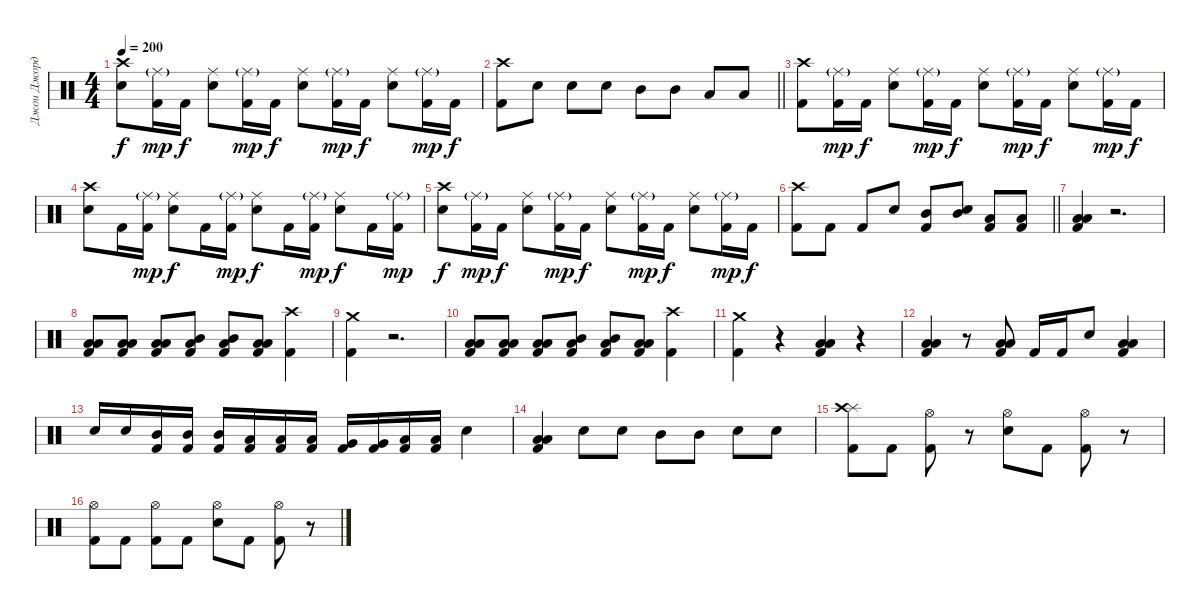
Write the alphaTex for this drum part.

\track ("Джои Джордисон" "Джои Джорд") {instrument percussion}
\staff {score}
\articulation defaults
\ts (4 4)
\tempo 200
\clef neutral
\ks c
("Crash high (hit)" "Electric Snare (hit)").8{dy f} ("Ride (middle)"{g} "Kick (hit) 2").16{dy mp} "Kick (hit) 2".16{dy f} ("Ride (middle)" "Electric Snare (hit)").8 ("Ride (middle)"{g} "Kick (hit) 2").16{dy mp} "Kick (hit) 2".16{dy f} ("Ride (middle)" "Electric Snare (hit)").8 ("Ride (middle)"{g} "Kick (hit) 2").16{dy mp} "Kick (hit) 2".16{dy f} ("Ride (middle)" "Electric Snare (hit)").8 ("Ride (middle)"{g} "Kick (hit) 2").16{dy mp} "Kick (hit) 2".16{dy f} |
\barLineRight lightlight
("Crash high (hit)" "Kick (hit) 2").8 "Electric Snare (hit)".8 "Electric Snare (hit)".8 "Electric Snare (hit)".8 "Mid Tom (hit)".8 "Mid Tom (hit)".8 "Low Tom (hit)".8 "Low Tom (hit)".8 |
("Crash high (hit)" "Kick (hit) 2").8 ("Ride (middle)"{g} "Kick (hit) 2").16{dy mp} "Kick (hit) 2".16{dy f} ("Ride (middle)" "Electric Snare (hit)").8 ("Ride (middle)"{g} "Kick (hit) 2").16{dy mp} "Kick (hit) 2".16{dy f} ("Ride (middle)" "Electric Snare (hit)").8 ("Ride (middle)"{g} "Kick (hit) 2").16{dy mp} "Kick (hit) 2".16{dy f} ("Ride (middle)" "Electric Snare (hit)").8 ("Ride (middle)"{g} "Kick (hit) 2").16{dy mp} "Kick (hit) 2".16{dy f} |
("Crash high (hit)" "Electric Snare (hit)").8 "Kick (hit) 2".16 ("Ride (middle)"{g} "Kick (hit) 2").16{dy mp} ("Ride (middle)" "Electric Snare (hit)").8{dy f} "Kick (hit) 2".16 ("Ride (middle)"{g} "Kick (hit) 2").16{dy mp} ("Ride (middle)" "Electric Snare (hit)").8{dy f} "Kick (hit) 2".16 ("Ride (middle)"{g} "Kick (hit) 2").16{dy mp} ("Ride (middle)" "Electric Snare (hit)").8{dy f} "Kick (hit) 2".16 ("Ride (middle)"{g} "Kick (hit) 2").16{dy mp} |
("Crash high (hit)" "Electric Snare (hit)").8{dy f} ("Ride (middle)"{g} "Kick (hit) 2").16{dy mp} "Kick (hit) 2".16{dy f} ("Ride (middle)" "Electric Snare (hit)").8 ("Ride (middle)"{g} "Kick (hit) 2").16{dy mp} "Kick (hit) 2".16{dy f} ("Ride (middle)" "Electric Snare (hit)").8 ("Ride (middle)"{g} "Kick (hit) 2").16{dy mp} "Kick (hit) 2".16{dy f} ("Ride (middle)" "Electric Snare (hit)").8 ("Ride (middle)"{g} "Kick (hit) 2").16{dy mp} "Kick (hit) 2".16{dy f} |
\barLineRight lightlight
("Crash high (hit)" "Kick (hit) 2").8 "Kick (hit) 2".8 "Kick (hit) 2".8 "Electric Snare (hit)".8 ("Mid Tom (hit)" "Kick (hit) 2").8 ("Mid Tom (hit)" "Electric Snare (hit)").8 ("Low Tom (hit)" "Kick (hit) 2").8 ("Low Tom (hit)" "Kick (hit) 2").8 |
("Low Tom (hit)" "Low Floor Tom (hit)" "Kick (hit) 2").4 r.2{d} |
("Low Tom (hit)" "Low Floor Tom (hit)" "Kick (hit) 2").8 ("Low Tom (hit)" "Low Floor Tom (hit)" "Kick (hit) 2").8 ("Low Tom (hit)" "Low Floor Tom (hit)" "Kick (hit) 2").8 ("Mid Tom (hit)" "Low Floor Tom (hit)" "Kick (hit) 2").8 ("Mid Tom (hit)" "Low Floor Tom (hit)" "Kick (hit) 2").8 ("Low Tom (hit)" "Low Floor Tom (hit)" "Kick (hit) 2").8 ("Crash high (hit)" "Kick (hit) 2").4 |
("Crash medium (hit)" "Kick (hit) 2").4 r.2{d} |
("Low Tom (hit)" "Low Floor Tom (hit)" "Kick (hit) 2").8 ("Low Tom (hit)" "Low Floor Tom (hit)" "Kick (hit) 2").8 ("Low Tom (hit)" "Low Floor Tom (hit)" "Kick (hit) 2").8 ("Mid Tom (hit)" "Low Floor Tom (hit)" "Kick (hit) 2").8 ("Mid Tom (hit)" "Low Floor Tom (hit)" "Kick (hit) 2").8 ("Low Tom (hit)" "Low Floor Tom (hit)" "Kick (hit) 2").8 ("Crash high (hit)" "Kick (hit) 2").4 |
("Crash medium (hit)" "Kick (hit) 2").4 r.4 ("Low Tom (hit)" "Low Floor Tom (hit)" "Kick (hit) 2").4 r.4 |
("Low Tom (hit)" "Low Floor Tom (hit)" "Kick (hit) 2").4 r.8 ("Low Tom (hit)" "Low Floor Tom (hit)" "Kick (hit) 2").8 "Kick (hit) 2".16 "Kick (hit) 2".16 "Electric Snare (hit)".8 ("Low Tom (hit)" "Low Floor Tom (hit)" "Kick (hit) 2").4 |
"Electric Snare (hit)".16 "Electric Snare (hit)".16 ("Mid Tom (hit)" "Kick (hit) 2").16 ("Mid Tom (hit)" "Kick (hit) 2").16 ("Mid Tom (hit)" "Kick (hit) 2").16 ("Low Tom (hit)" "Kick (hit) 2").16 ("Low Tom (hit)" "Kick (hit) 2").16 ("Low Tom (hit)" "Kick (hit) 2").16 ("Very Low Tom (hit)" "Kick (hit) 2").16 ("Very Low Tom (hit)" "Kick (hit) 2").16 ("Low Floor Tom (hit)" "Kick (hit) 2").16 ("Low Floor Tom (hit)" "Kick (hit) 2").16 "Electric Snare (hit)".4 |
("Low Tom (hit)" "Low Floor Tom (hit)" "Kick (hit) 2").4 "Electric Snare (hit)".8 "Electric Snare (hit)".8 "Mid Tom (hit)".8 "Mid Tom (hit)".8 "Electric Snare (hit)".8 "Electric Snare (hit)".8 |
("Splash (hit)" "Crash high (hit)" "Kick (hit) 2").8 "Kick (hit) 2".8 ("Hi-Hat (open)" "Kick (hit) 2").8 r.8 ("Hi-Hat (open)" "Electric Snare (hit)").8 "Kick (hit) 2".8 ("Hi-Hat (open)" "Kick (hit) 2").8 r.8 |
("Hi-Hat (open)" "Kick (hit) 2").8 "Kick (hit) 2".8 ("Hi-Hat (open)" "Kick (hit) 2").8 "Kick (hit) 2".8 ("Hi-Hat (open)" "Electric Snare (hit)").8 "Kick (hit) 2".8 ("Hi-Hat (open)" "Kick (hit) 2").8 r.8
